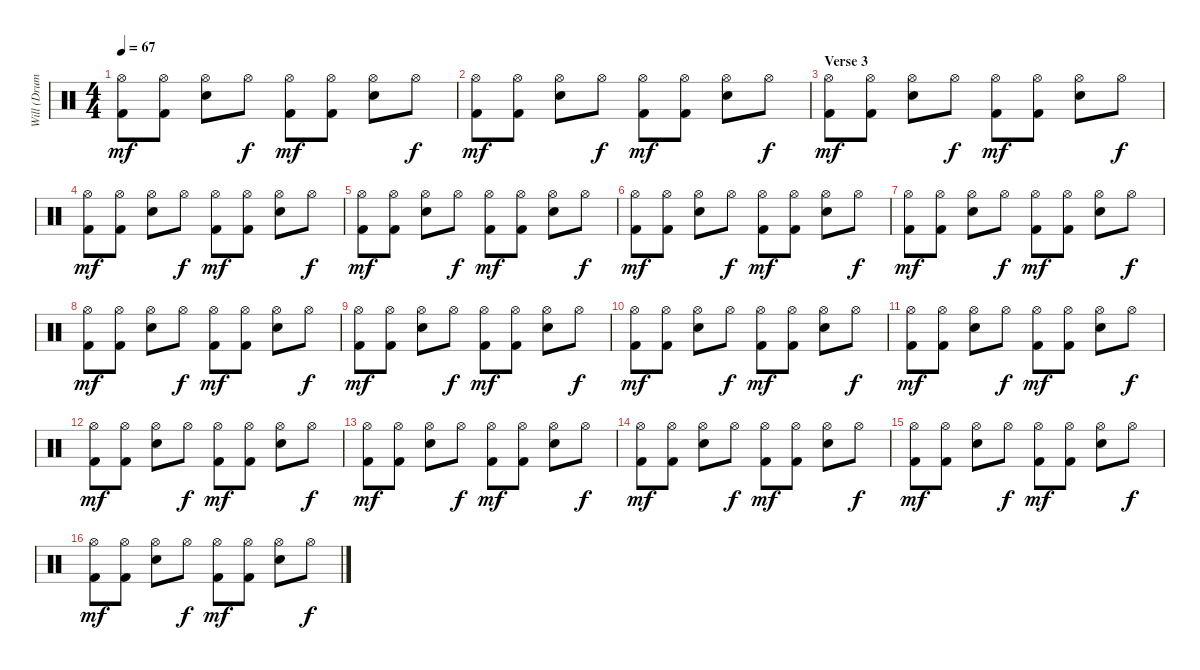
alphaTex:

\track ("Will (Drums)" "Will (Drum") {instrument percussion}
\staff {score}
\articulation defaults
\ts (4 4)
\tempo 67
\clef neutral
\ks c
("Kick (hit) 2" "Hi-Hat (open)").8{dy mf} ("Kick (hit) 2" "Hi-Hat (open)").8 ("Snare (hit) 2" "Hi-Hat (open)").8 "Hi-Hat (open)".8{dy f} ("Kick (hit) 2" "Hi-Hat (open)").8{dy mf} ("Kick (hit) 2" "Hi-Hat (open)").8 ("Snare (hit) 2" "Hi-Hat (open)").8 "Hi-Hat (open)".8{dy f} |
("Kick (hit) 2" "Hi-Hat (open)").8{dy mf} ("Kick (hit) 2" "Hi-Hat (open)").8 ("Snare (hit) 2" "Hi-Hat (open)").8 "Hi-Hat (open)".8{dy f} ("Kick (hit) 2" "Hi-Hat (open)").8{dy mf} ("Kick (hit) 2" "Hi-Hat (open)").8 ("Snare (hit) 2" "Hi-Hat (open)").8 "Hi-Hat (open)".8{dy f} |
\section ("" "Verse 3")
("Kick (hit) 2" "Hi-Hat (open)").8{dy mf} ("Kick (hit) 2" "Hi-Hat (open)").8 ("Snare (hit) 2" "Hi-Hat (open)").8 "Hi-Hat (open)".8{dy f} ("Kick (hit) 2" "Hi-Hat (open)").8{dy mf} ("Kick (hit) 2" "Hi-Hat (open)").8 ("Snare (hit) 2" "Hi-Hat (open)").8 "Hi-Hat (open)".8{dy f} |
("Kick (hit) 2" "Hi-Hat (open)").8{dy mf} ("Kick (hit) 2" "Hi-Hat (open)").8 ("Snare (hit) 2" "Hi-Hat (open)").8 "Hi-Hat (open)".8{dy f} ("Kick (hit) 2" "Hi-Hat (open)").8{dy mf} ("Kick (hit) 2" "Hi-Hat (open)").8 ("Snare (hit) 2" "Hi-Hat (open)").8 "Hi-Hat (open)".8{dy f} |
("Kick (hit) 2" "Hi-Hat (open)").8{dy mf} ("Kick (hit) 2" "Hi-Hat (open)").8 ("Snare (hit) 2" "Hi-Hat (open)").8 "Hi-Hat (open)".8{dy f} ("Kick (hit) 2" "Hi-Hat (open)").8{dy mf} ("Kick (hit) 2" "Hi-Hat (open)").8 ("Snare (hit) 2" "Hi-Hat (open)").8 "Hi-Hat (open)".8{dy f} |
("Kick (hit) 2" "Hi-Hat (open)").8{dy mf} ("Kick (hit) 2" "Hi-Hat (open)").8 ("Snare (hit) 2" "Hi-Hat (open)").8 "Hi-Hat (open)".8{dy f} ("Kick (hit) 2" "Hi-Hat (open)").8{dy mf} ("Kick (hit) 2" "Hi-Hat (open)").8 ("Snare (hit) 2" "Hi-Hat (open)").8 "Hi-Hat (open)".8{dy f} |
("Kick (hit) 2" "Hi-Hat (open)").8{dy mf} ("Kick (hit) 2" "Hi-Hat (open)").8 ("Snare (hit) 2" "Hi-Hat (open)").8 "Hi-Hat (open)".8{dy f} ("Kick (hit) 2" "Hi-Hat (open)").8{dy mf} ("Kick (hit) 2" "Hi-Hat (open)").8 ("Snare (hit) 2" "Hi-Hat (open)").8 "Hi-Hat (open)".8{dy f} |
("Kick (hit) 2" "Hi-Hat (open)").8{dy mf} ("Kick (hit) 2" "Hi-Hat (open)").8 ("Snare (hit) 2" "Hi-Hat (open)").8 "Hi-Hat (open)".8{dy f} ("Kick (hit) 2" "Hi-Hat (open)").8{dy mf} ("Kick (hit) 2" "Hi-Hat (open)").8 ("Snare (hit) 2" "Hi-Hat (open)").8 "Hi-Hat (open)".8{dy f} |
("Kick (hit) 2" "Hi-Hat (open)").8{dy mf} ("Kick (hit) 2" "Hi-Hat (open)").8 ("Snare (hit) 2" "Hi-Hat (open)").8 "Hi-Hat (open)".8{dy f} ("Kick (hit) 2" "Hi-Hat (open)").8{dy mf} ("Kick (hit) 2" "Hi-Hat (open)").8 ("Snare (hit) 2" "Hi-Hat (open)").8 "Hi-Hat (open)".8{dy f} |
("Kick (hit) 2" "Hi-Hat (open)").8{dy mf} ("Kick (hit) 2" "Hi-Hat (open)").8 ("Snare (hit) 2" "Hi-Hat (open)").8 "Hi-Hat (open)".8{dy f} ("Kick (hit) 2" "Hi-Hat (open)").8{dy mf} ("Kick (hit) 2" "Hi-Hat (open)").8 ("Snare (hit) 2" "Hi-Hat (open)").8 "Hi-Hat (open)".8{dy f} |
("Kick (hit) 2" "Hi-Hat (open)").8{dy mf} ("Kick (hit) 2" "Hi-Hat (open)").8 ("Snare (hit) 2" "Hi-Hat (open)").8 "Hi-Hat (open)".8{dy f} ("Kick (hit) 2" "Hi-Hat (open)").8{dy mf} ("Kick (hit) 2" "Hi-Hat (open)").8 ("Snare (hit) 2" "Hi-Hat (open)").8 "Hi-Hat (open)".8{dy f} |
("Kick (hit) 2" "Hi-Hat (open)").8{dy mf} ("Kick (hit) 2" "Hi-Hat (open)").8 ("Snare (hit) 2" "Hi-Hat (open)").8 "Hi-Hat (open)".8{dy f} ("Kick (hit) 2" "Hi-Hat (open)").8{dy mf} ("Kick (hit) 2" "Hi-Hat (open)").8 ("Snare (hit) 2" "Hi-Hat (open)").8 "Hi-Hat (open)".8{dy f} |
("Kick (hit) 2" "Hi-Hat (open)").8{dy mf} ("Kick (hit) 2" "Hi-Hat (open)").8 ("Snare (hit) 2" "Hi-Hat (open)").8 "Hi-Hat (open)".8{dy f} ("Kick (hit) 2" "Hi-Hat (open)").8{dy mf} ("Kick (hit) 2" "Hi-Hat (open)").8 ("Snare (hit) 2" "Hi-Hat (open)").8 "Hi-Hat (open)".8{dy f} |
("Kick (hit) 2" "Hi-Hat (open)").8{dy mf} ("Kick (hit) 2" "Hi-Hat (open)").8 ("Snare (hit) 2" "Hi-Hat (open)").8 "Hi-Hat (open)".8{dy f} ("Kick (hit) 2" "Hi-Hat (open)").8{dy mf} ("Kick (hit) 2" "Hi-Hat (open)").8 ("Snare (hit) 2" "Hi-Hat (open)").8 "Hi-Hat (open)".8{dy f} |
("Kick (hit) 2" "Hi-Hat (open)").8{dy mf} ("Kick (hit) 2" "Hi-Hat (open)").8 ("Snare (hit) 2" "Hi-Hat (open)").8 "Hi-Hat (open)".8{dy f} ("Kick (hit) 2" "Hi-Hat (open)").8{dy mf} ("Kick (hit) 2" "Hi-Hat (open)").8 ("Snare (hit) 2" "Hi-Hat (open)").8 "Hi-Hat (open)".8{dy f} |
("Kick (hit) 2" "Hi-Hat (open)").8{dy mf} ("Kick (hit) 2" "Hi-Hat (open)").8 ("Snare (hit) 2" "Hi-Hat (open)").8 "Hi-Hat (open)".8{dy f} ("Kick (hit) 2" "Hi-Hat (open)").8{dy mf} ("Kick (hit) 2" "Hi-Hat (open)").8 ("Snare (hit) 2" "Hi-Hat (open)").8 "Hi-Hat (open)".8{dy f}
